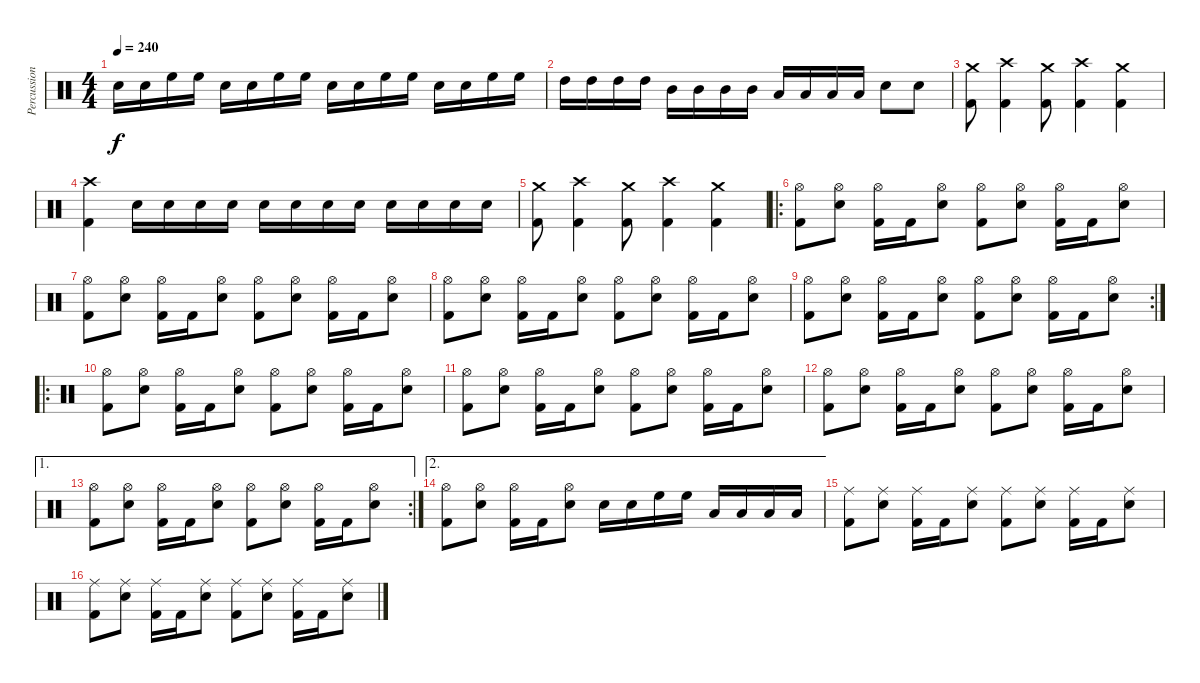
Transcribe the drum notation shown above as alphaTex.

\track ("Percussion" "Percussion") {instrument percussion}
\staff {score}
\articulation defaults
\ts (4 4)
\tempo 240
\clef neutral
\ks c "Electric Snare (hit)".16{dy f} "Electric Snare (hit)".16 "High Floor Tom (hit)".16 "High Floor Tom (hit)".16 "Electric Snare (hit)".16 "Electric Snare (hit)".16 "High Floor Tom (hit)".16 "High Floor Tom (hit)".16 "Electric Snare (hit)".16 "Electric Snare (hit)".16 "High Floor Tom (hit)".16 "High Floor Tom (hit)".16 "Electric Snare (hit)".16 "Electric Snare (hit)".16 "High Floor Tom (hit)".16 "High Floor Tom (hit)".16
|
"High Tom (hit)".16 "High Tom (hit)".16 "High Tom (hit)".16 "High Tom (hit)".16 "Mid Tom (hit)".16 "Mid Tom (hit)".16 "Mid Tom (hit)".16 "Mid Tom (hit)".16 "Low Tom (hit)".16 "Low Tom (hit)".16 "Low Tom (hit)".16 "Low Tom (hit)".16 "Electric Snare (hit)".8 "Electric Snare (hit)".8 |
("Crash medium (hit)" "Kick (hit) 2").8 ("Crash high (hit)" "Kick (hit) 2").4 ("Crash medium (hit)" "Kick (hit) 2").8 ("Crash high (hit)" "Kick (hit) 2").4 ("Crash medium (hit)" "Kick (hit) 2").4 |
("Crash high (hit)" "Kick (hit) 2").4 "Electric Snare (hit)".16 "Electric Snare (hit)".16 "Electric Snare (hit)".16 "Electric Snare (hit)".16 "Electric Snare (hit)".16 "Electric Snare (hit)".16 "Electric Snare (hit)".16 "Electric Snare (hit)".16 "Electric Snare (hit)".16 "Electric Snare (hit)".16 "Electric Snare (hit)".16 "Electric Snare (hit)".16 |
("Crash medium (hit)" "Kick (hit) 2").8 ("Crash high (hit)" "Kick (hit) 2").4 ("Crash medium (hit)" "Kick (hit) 2").8 ("Crash high (hit)" "Kick (hit) 2").4 ("Crash medium (hit)" "Kick (hit) 2").4 |
\ro
("Hi-Hat (open)" "Kick (hit) 2").8 ("Hi-Hat (open)" "Electric Snare (hit)").8 ("Hi-Hat (open)" "Kick (hit) 2").16 "Kick (hit) 2".16 ("Hi-Hat (open)" "Electric Snare (hit)").8 ("Hi-Hat (open)" "Kick (hit) 2").8 ("Hi-Hat (open)" "Electric Snare (hit)").8 ("Hi-Hat (open)" "Kick (hit) 2").16 "Kick (hit) 2".16 ("Hi-Hat (open)" "Electric Snare (hit)").8 |
("Hi-Hat (open)" "Kick (hit) 2").8 ("Hi-Hat (open)" "Electric Snare (hit)").8 ("Hi-Hat (open)" "Kick (hit) 2").16 "Kick (hit) 2".16 ("Hi-Hat (open)" "Electric Snare (hit)").8 ("Hi-Hat (open)" "Kick (hit) 2").8 ("Hi-Hat (open)" "Electric Snare (hit)").8 ("Hi-Hat (open)" "Kick (hit) 2").16 "Kick (hit) 2".16 ("Hi-Hat (open)" "Electric Snare (hit)").8 |
("Hi-Hat (open)" "Kick (hit) 2").8 ("Hi-Hat (open)" "Electric Snare (hit)").8 ("Hi-Hat (open)" "Kick (hit) 2").16 "Kick (hit) 2".16 ("Hi-Hat (open)" "Electric Snare (hit)").8 ("Hi-Hat (open)" "Kick (hit) 2").8 ("Hi-Hat (open)" "Electric Snare (hit)").8 ("Hi-Hat (open)" "Kick (hit) 2").16 "Kick (hit) 2".16 ("Hi-Hat (open)" "Electric Snare (hit)").8 |
\rc 2
("Hi-Hat (open)" "Kick (hit) 2").8 ("Hi-Hat (open)" "Electric Snare (hit)").8 ("Hi-Hat (open)" "Kick (hit) 2").16 "Kick (hit) 2".16 ("Hi-Hat (open)" "Electric Snare (hit)").8 ("Hi-Hat (open)" "Kick (hit) 2").8 ("Hi-Hat (open)" "Electric Snare (hit)").8 ("Hi-Hat (open)" "Kick (hit) 2").16 "Kick (hit) 2".16 ("Hi-Hat (open)" "Electric Snare (hit)").8 |
\ro
("Hi-Hat (open)" "Kick (hit) 2").8 ("Hi-Hat (open)" "Electric Snare (hit)").8 ("Hi-Hat (open)" "Kick (hit) 2").16 "Kick (hit) 2".16 ("Hi-Hat (open)" "Electric Snare (hit)").8 ("Hi-Hat (open)" "Kick (hit) 2").8 ("Hi-Hat (open)" "Electric Snare (hit)").8 ("Hi-Hat (open)" "Kick (hit) 2").16 "Kick (hit) 2".16 ("Hi-Hat (open)" "Electric Snare (hit)").8 |
("Hi-Hat (open)" "Kick (hit) 2").8 ("Hi-Hat (open)" "Electric Snare (hit)").8 ("Hi-Hat (open)" "Kick (hit) 2").16 "Kick (hit) 2".16 ("Hi-Hat (open)" "Electric Snare (hit)").8 ("Hi-Hat (open)" "Kick (hit) 2").8 ("Hi-Hat (open)" "Electric Snare (hit)").8 ("Hi-Hat (open)" "Kick (hit) 2").16 "Kick (hit) 2".16 ("Hi-Hat (open)" "Electric Snare (hit)").8 |
("Hi-Hat (open)" "Kick (hit) 2").8 ("Hi-Hat (open)" "Electric Snare (hit)").8 ("Hi-Hat (open)" "Kick (hit) 2").16 "Kick (hit) 2".16 ("Hi-Hat (open)" "Electric Snare (hit)").8 ("Hi-Hat (open)" "Kick (hit) 2").8 ("Hi-Hat (open)" "Electric Snare (hit)").8 ("Hi-Hat (open)" "Kick (hit) 2").16 "Kick (hit) 2".16 ("Hi-Hat (open)" "Electric Snare (hit)").8 |
\ae 1
\rc 2
("Hi-Hat (open)" "Kick (hit) 2").8 ("Hi-Hat (open)" "Electric Snare (hit)").8 ("Hi-Hat (open)" "Kick (hit) 2").16 "Kick (hit) 2".16 ("Hi-Hat (open)" "Electric Snare (hit)").8 ("Hi-Hat (open)" "Kick (hit) 2").8 ("Hi-Hat (open)" "Electric Snare (hit)").8 ("Hi-Hat (open)" "Kick (hit) 2").16 "Kick (hit) 2".16 ("Hi-Hat (open)" "Electric Snare (hit)").8 |
\ae 2
("Hi-Hat (open)" "Kick (hit) 2").8 ("Hi-Hat (open)" "Electric Snare (hit)").8 ("Hi-Hat (open)" "Kick (hit) 2").16 "Kick (hit) 2".16 ("Hi-Hat (open)" "Electric Snare (hit)").8 "Electric Snare (hit)".16 "Electric Snare (hit)".16 "High Floor Tom (hit)".16 "High Floor Tom (hit)".16 "Low Tom (hit)".16 "Low Tom (hit)".16 "Low Floor Tom (hit)".16 "Low Floor Tom (hit)".16 |
("Ride (middle)" "Kick (hit) 2").8 ("Ride (middle)" "Electric Snare (hit)").8 ("Ride (middle)" "Kick (hit) 2").16 "Kick (hit) 2".16 ("Ride (middle)" "Electric Snare (hit)").8 ("Ride (middle)" "Kick (hit) 2").8 ("Ride (middle)" "Electric Snare (hit)").8 ("Ride (middle)" "Kick (hit) 2").16 "Kick (hit) 2".16 ("Ride (middle)" "Electric Snare (hit)").8 |
("Ride (middle)" "Kick (hit) 2").8 ("Ride (middle)" "Electric Snare (hit)").8 ("Ride (middle)" "Kick (hit) 2").16 "Kick (hit) 2".16 ("Ride (middle)" "Electric Snare (hit)").8 ("Ride (middle)" "Kick (hit) 2").8 ("Ride (middle)" "Electric Snare (hit)").8 ("Ride (middle)" "Kick (hit) 2").16 "Kick (hit) 2".16 ("Ride (middle)" "Electric Snare (hit)").8
